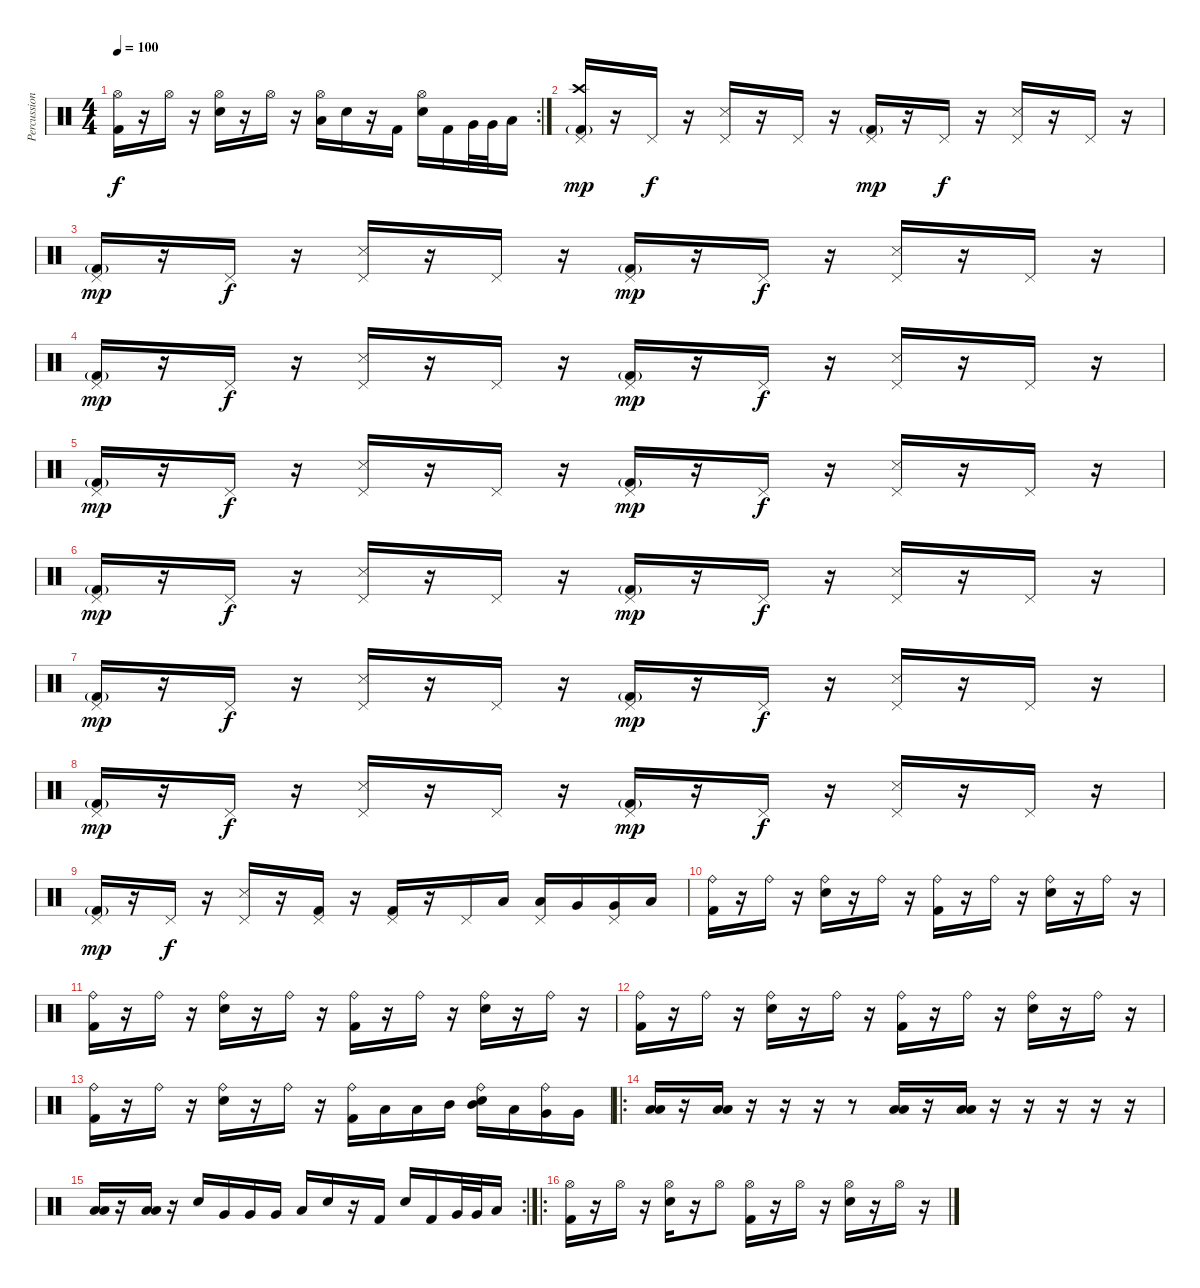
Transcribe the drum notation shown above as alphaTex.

\track ("Percussion" "Percussion") {instrument percussion}
\staff {score}
\articulation defaults
\rc 2
\ts (4 4)
\tempo 100
\clef neutral
\ks c
("Kick (hit) 2" "Hi-Hat (open)").16{dy f} r.16 "Hi-Hat (open)".16 r.16 ("Electric Snare (hit)" "Hi-Hat (open)").16 r.16 "Hi-Hat (open)".16 r.16 ("Low Tom (hit)" "Hi-Hat (open)").16 "Electric Snare (hit)".16 r.16 "Kick (hit) 2".16 ("Electric Snare (hit)" "Hi-Hat (open)").16 "Kick (hit) 2".16 "Very Low Tom (hit)".32 "Very Low Tom (hit)".32 "Low Floor Tom (hit)".16 |
("Crash high (hit)" "Kick (hit) 2"{g} "Pedal Hi-Hat (hit)").16{dy mp} r.16 "Pedal Hi-Hat (hit)".16{dy f} r.16 ("Snare (side stick) 3" "Pedal Hi-Hat (hit)").16 r.16 "Pedal Hi-Hat (hit)".16 r.16 ("Kick (hit) 2"{g} "Pedal Hi-Hat (hit)").16{dy mp} r.16 "Pedal Hi-Hat (hit)".16{dy f} r.16 ("Snare (side stick) 3" "Pedal Hi-Hat (hit)").16 r.16 "Pedal Hi-Hat (hit)".16 r.16 |
("Kick (hit) 2"{g} "Pedal Hi-Hat (hit)").16{dy mp} r.16 "Pedal Hi-Hat (hit)".16{dy f} r.16 ("Snare (side stick) 3" "Pedal Hi-Hat (hit)").16 r.16 "Pedal Hi-Hat (hit)".16 r.16 ("Kick (hit) 2"{g} "Pedal Hi-Hat (hit)").16{dy mp} r.16 "Pedal Hi-Hat (hit)".16{dy f} r.16 ("Snare (side stick) 3" "Pedal Hi-Hat (hit)").16 r.16 "Pedal Hi-Hat (hit)".16 r.16 |
("Kick (hit) 2"{g} "Pedal Hi-Hat (hit)").16{dy mp} r.16 "Pedal Hi-Hat (hit)".16{dy f} r.16 ("Snare (side stick) 3" "Pedal Hi-Hat (hit)").16 r.16 "Pedal Hi-Hat (hit)".16 r.16 ("Kick (hit) 2"{g} "Pedal Hi-Hat (hit)").16{dy mp} r.16 "Pedal Hi-Hat (hit)".16{dy f} r.16 ("Snare (side stick) 3" "Pedal Hi-Hat (hit)").16 r.16 "Pedal Hi-Hat (hit)".16 r.16 |
("Kick (hit) 2"{g} "Pedal Hi-Hat (hit)").16{dy mp} r.16 "Pedal Hi-Hat (hit)".16{dy f} r.16 ("Snare (side stick) 3" "Pedal Hi-Hat (hit)").16 r.16 "Pedal Hi-Hat (hit)".16 r.16 ("Kick (hit) 2"{g} "Pedal Hi-Hat (hit)").16{dy mp} r.16 "Pedal Hi-Hat (hit)".16{dy f} r.16 ("Snare (side stick) 3" "Pedal Hi-Hat (hit)").16 r.16 "Pedal Hi-Hat (hit)".16 r.16 |
("Kick (hit) 2"{g} "Pedal Hi-Hat (hit)").16{dy mp} r.16 "Pedal Hi-Hat (hit)".16{dy f} r.16 ("Snare (side stick) 3" "Pedal Hi-Hat (hit)").16 r.16 "Pedal Hi-Hat (hit)".16 r.16 ("Kick (hit) 2"{g} "Pedal Hi-Hat (hit)").16{dy mp} r.16 "Pedal Hi-Hat (hit)".16{dy f} r.16 ("Snare (side stick) 3" "Pedal Hi-Hat (hit)").16 r.16 "Pedal Hi-Hat (hit)".16 r.16 |
("Kick (hit) 2"{g} "Pedal Hi-Hat (hit)").16{dy mp} r.16 "Pedal Hi-Hat (hit)".16{dy f} r.16 ("Snare (side stick) 3" "Pedal Hi-Hat (hit)").16 r.16 "Pedal Hi-Hat (hit)".16 r.16 ("Kick (hit) 2"{g} "Pedal Hi-Hat (hit)").16{dy mp} r.16 "Pedal Hi-Hat (hit)".16{dy f} r.16 ("Snare (side stick) 3" "Pedal Hi-Hat (hit)").16 r.16 "Pedal Hi-Hat (hit)".16 r.16 |
("Kick (hit) 2"{g} "Pedal Hi-Hat (hit)").16{dy mp} r.16 "Pedal Hi-Hat (hit)".16{dy f} r.16 ("Snare (side stick) 3" "Pedal Hi-Hat (hit)").16 r.16 "Pedal Hi-Hat (hit)".16 r.16 ("Kick (hit) 2"{g} "Pedal Hi-Hat (hit)").16{dy mp} r.16 "Pedal Hi-Hat (hit)".16{dy f} r.16 ("Snare (side stick) 3" "Pedal Hi-Hat (hit)").16 r.16 "Pedal Hi-Hat (hit)".16 r.16 |
("Kick (hit) 2"{g} "Pedal Hi-Hat (hit)").16{dy mp} r.16 "Pedal Hi-Hat (hit)".16{dy f} r.16 ("Snare (side stick) 3" "Pedal Hi-Hat (hit)").16 r.16 ("Kick (hit) 2" "Pedal Hi-Hat (hit)").16 r.16 ("Kick (hit) 2" "Pedal Hi-Hat (hit)").16 r.16 "Pedal Hi-Hat (hit)".16 "Low Tom (hit)".16 ("Low Tom (hit)" "Pedal Hi-Hat (hit)").16 "Very Low Tom (hit)".16 ("Very Low Tom (hit)" "Pedal Hi-Hat (hit)").16 "Low Floor Tom (hit)".16 |
("Kick (hit) 2" "Ride (bell)").16 r.16 "Ride (bell)".16 r.16 ("Electric Snare (hit)" "Ride (bell)").16 r.16 "Ride (bell)".16 r.16 ("Kick (hit) 2" "Ride (bell)").16 r.16 "Ride (bell)".16 r.16 ("Electric Snare (hit)" "Ride (bell)").16 r.16 "Ride (bell)".16 r.16 |
("Kick (hit) 2" "Ride (bell)").16 r.16 "Ride (bell)".16 r.16 ("Electric Snare (hit)" "Ride (bell)").16 r.16 "Ride (bell)".16 r.16 ("Kick (hit) 2" "Ride (bell)").16 r.16 "Ride (bell)".16 r.16 ("Electric Snare (hit)" "Ride (bell)").16 r.16 "Ride (bell)".16 r.16 |
("Kick (hit) 2" "Ride (bell)").16 r.16 "Ride (bell)".16 r.16 ("Electric Snare (hit)" "Ride (bell)").16 r.16 "Ride (bell)".16 r.16 ("Kick (hit) 2" "Ride (bell)").16 r.16 "Ride (bell)".16 r.16 ("Electric Snare (hit)" "Ride (bell)").16 r.16 "Ride (bell)".16 r.16 |
("Kick (hit) 2" "Ride (bell)").16 r.16 "Ride (bell)".16 r.16 ("Electric Snare (hit)" "Ride (bell)").16 r.16 "Ride (bell)".16 r.16 ("Kick (hit) 2" "Ride (bell)").16 "Low Tom (hit)".16 "Low Tom (hit)".16 "Mid Tom (hit)".16 ("Electric Snare (hit)" "Mid Tom (hit)" "Ride (bell)").16 "Low Tom (hit)".16 ("Very Low Tom (hit)" "Ride (bell)").16 "Very Low Tom (hit)".16 |
\ro
("Low Floor Tom (hit)" "Low Tom (hit)").16 r.16 ("Low Floor Tom (hit)" "Low Tom (hit)").16 r.16 r.16 r.16 r.8 ("Low Floor Tom (hit)" "Low Tom (hit)").16 r.16 ("Low Floor Tom (hit)" "Low Tom (hit)").16 r.16 r.16 r.16 r.16 r.16 |
\rc 2
("Low Floor Tom (hit)" "Low Tom (hit)").16 r.16 ("Low Floor Tom (hit)" "Low Tom (hit)").16 r.16 "Electric Snare (hit)".16 "Very Low Tom (hit)".16 "Very Low Tom (hit)".16 "Very Low Tom (hit)".16 "Low Tom (hit)".16 "Electric Snare (hit)".16 r.16 "Kick (hit) 2".16 "Electric Snare (hit)".16 "Kick (hit) 2".16 "Very Low Tom (hit)".32 "Very Low Tom (hit)".32 "Low Floor Tom (hit)".16 |
\ro
("Kick (hit) 2" "Hi-Hat (open)").16 r.16 "Hi-Hat (open)".16 r.16 ("Electric Snare (hit)" "Hi-Hat (open)").16 r.16 "Hi-Hat (open)".8 ("Kick (hit) 2" "Hi-Hat (open)").16 r.16 "Hi-Hat (open)".16 r.16 ("Electric Snare (hit)" "Hi-Hat (open)").16 r.16 "Hi-Hat (open)".16 r.16
